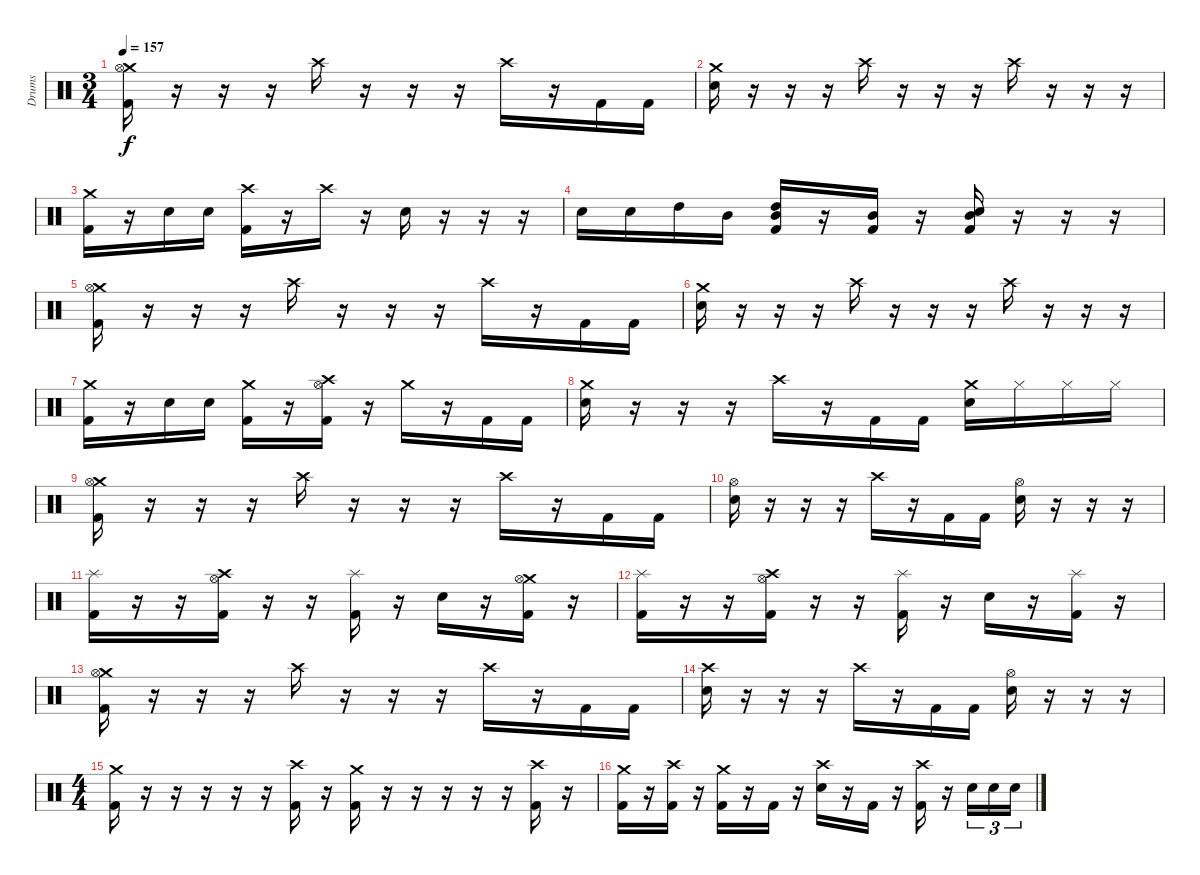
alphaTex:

\track ("Drums" "Drums") {instrument percussion}
\staff {score}
\articulation defaults
\ts (3 4)
\tempo 157
\clef neutral
\ks c
("Crash medium (hit)" "Hi-Hat (open)" "Kick (hit) 2").16{dy f} r.16 r.16 r.16 "Crash high (hit)".16 r.16 r.16 r.16 "Crash high (hit)".16 r.16 "Kick (hit) 2".16 "Kick (hit) 2".16 |
("Crash medium (hit)" "Snare (hit) 2").16 r.16 r.16 r.16 "Crash high (hit)".16 r.16 r.16 r.16 "Crash high (hit)".16 r.16 r.16 r.16 |
("Crash medium (hit)" "Kick (hit) 2").16 r.16 "Snare (hit) 2".16 "Snare (hit) 2".16 ("Crash high (hit)" "Kick (hit) 2").16 r.16 "Crash high (hit)".16 r.16 "Snare (hit) 2".16 r.16 r.16 r.16 |
"Snare (hit) 2".16 "Snare (hit) 2".16 "High Tom (hit)".16 "Mid Tom (hit)".16 ("High Tom (hit)" "Mid Tom (hit)" "Kick (hit) 2").16 r.16 ("Mid Tom (hit)" "Kick (hit) 2").16 r.16 ("Mid Tom (hit)" "Snare (hit) 2" "Kick (hit) 2").16 r.16 r.16 r.16 |
("Crash medium (hit)" "Hi-Hat (open)" "Kick (hit) 2").16 r.16 r.16 r.16 "Crash high (hit)".16 r.16 r.16 r.16 "Crash high (hit)".16 r.16 "Kick (hit) 2".16 "Kick (hit) 2".16 |
("Crash medium (hit)" "Snare (hit) 2").16 r.16 r.16 r.16 "Crash high (hit)".16 r.16 r.16 r.16 "Crash high (hit)".16 r.16 r.16 r.16 |
("Crash medium (hit)" "Kick (hit) 2").16 r.16 "Snare (hit) 2".16 "Snare (hit) 2".16 ("Crash medium (hit)" "Kick (hit) 2").16 r.16 ("Crash high (hit)" "Hi-Hat (open)" "Kick (hit) 2").16 r.16 "Crash medium (hit)".16 r.16 "Kick (hit) 2".16 "Kick (hit) 2".16 |
("Crash medium (hit)" "Snare (hit) 2").16 r.16 r.16 r.16 "Crash high (hit)".16 r.16 "Kick (hit) 2".16 "Kick (hit) 2".16 ("Crash medium (hit)" "Snare (hit) 2").16 "Hi-Hat (closed)".16 "Hi-Hat (closed)".16 "Hi-Hat (closed)".16 |
("Crash medium (hit)" "Hi-Hat (open)" "Kick (hit) 2").16 r.16 r.16 r.16 "Crash high (hit)".16 r.16 r.16 r.16 "Crash high (hit)".16 r.16 "Kick (hit) 2".16 "Kick (hit) 2".16 |
("Hi-Hat (open)" "Snare (hit) 2").16 r.16 r.16 r.16 "Crash high (hit)".16 r.16 "Kick (hit) 2".16 "Kick (hit) 2".16 ("Hi-Hat (open)" "Snare (hit) 2").16 r.16 r.16 r.16 |
("Splash (hit)" "Kick (hit) 2").16 r.16 r.16 ("Crash high (hit)" "Hi-Hat (open)" "Kick (hit) 2").16 r.16 r.16 ("Splash (hit)" "Kick (hit) 2").16 r.16 "Snare (hit) 2".16 r.16 ("Crash medium (hit)" "Hi-Hat (open)" "Kick (hit) 2").16 r.16 |
("Splash (hit)" "Kick (hit) 2").16 r.16 r.16 ("Crash high (hit)" "Hi-Hat (open)" "Kick (hit) 2").16 r.16 r.16 ("Splash (hit)" "Kick (hit) 2").16 r.16 "Snare (hit) 2".16 r.16 ("Splash (hit)" "Kick (hit) 2").16 r.16 |
("Crash medium (hit)" "Hi-Hat (open)" "Kick (hit) 2").16 r.16 r.16 r.16 "Crash high (hit)".16 r.16 r.16 r.16 "Crash high (hit)".16 r.16 "Kick (hit) 2".16 "Kick (hit) 2".16 |
("Crash high (hit)" "Snare (hit) 2").16 r.16 r.16 r.16 "Crash high (hit)".16 r.16 "Kick (hit) 2".16 "Kick (hit) 2".16 ("Hi-Hat (open)" "Snare (hit) 2").16 r.16 r.16 r.16 |
\ts (4 4)
("Crash medium (hit)" "Kick (hit) 2").16 r.16 r.16 r.16 r.16 r.16 ("Crash high (hit)" "Kick (hit) 2").16 r.16 ("Crash medium (hit)" "Kick (hit) 2").16 r.16 r.16 r.16 r.16 r.16 ("Crash high (hit)" "Kick (hit) 2").16 r.16 |
("Crash medium (hit)" "Kick (hit) 2").16 r.16 ("Crash high (hit)" "Kick (hit) 2").16 r.16 ("Crash medium (hit)" "Kick (hit) 2").16 r.16 "Kick (hit) 2".16 r.16 ("Crash high (hit)" "Snare (hit) 2").16 r.16 "Kick (hit) 2".16 r.16 ("Crash high (hit)" "Kick (hit) 2").16 r.16 "Snare (hit) 2".16{tu (3 2)} "Snare (hit) 2".16{tu (3 2)} "Snare (hit) 2".16{tu (3 2)}
